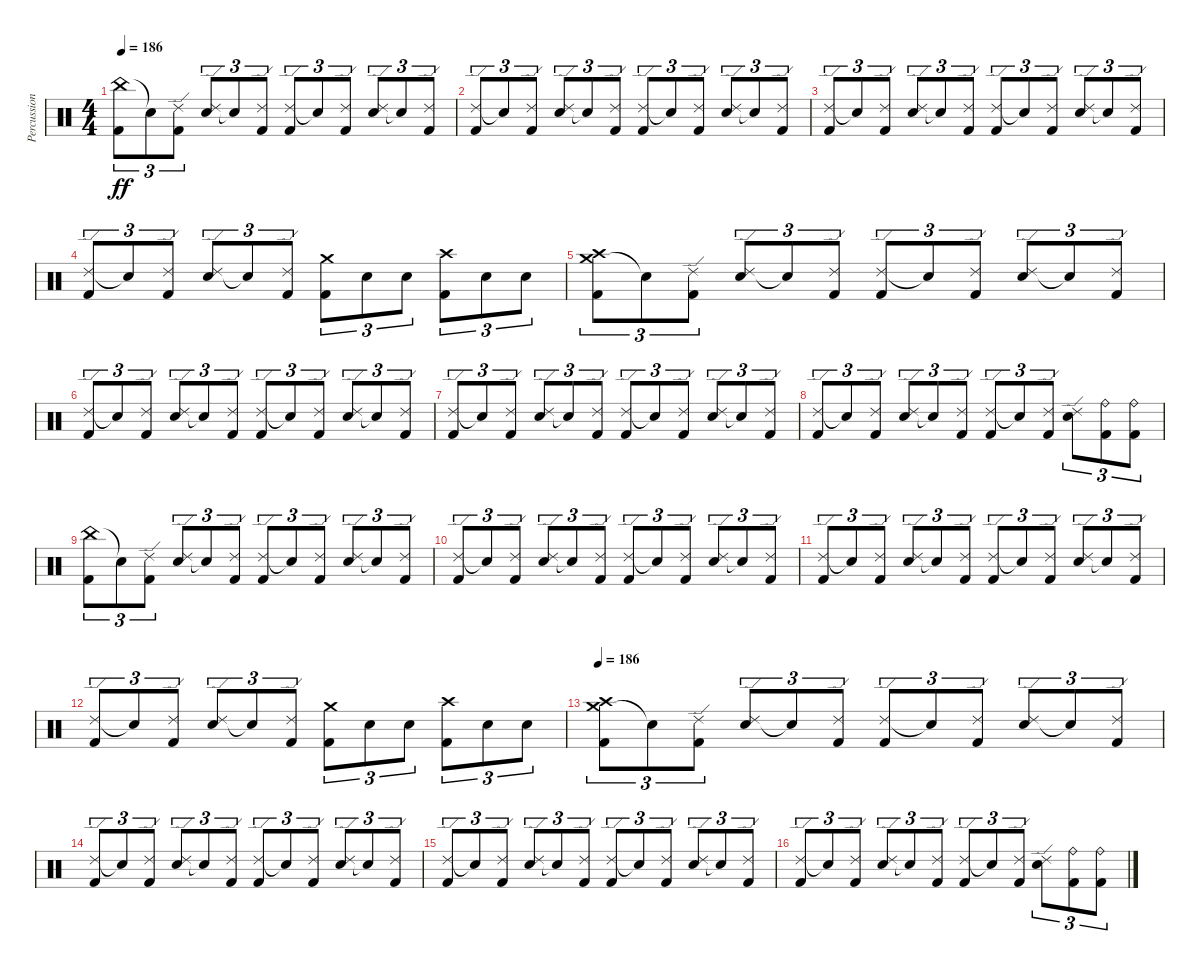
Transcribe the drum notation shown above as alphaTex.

\track ("Percussion" "Percussion") {instrument percussion}
\staff {score}
\articulation defaults
\ts (4 4)
\tempo 186
\clef neutral
\ks c
("China (hit)" "Kick (hit) 2").8{tu (3 2) dy ff} "Snare (hit)"{t}.8{tu (3 2)} ("Ride (edge) 2" "Kick (hit) 2").8{tu (3 2)} ("Ride (edge) 2" "Snare (hit) 2").8{tu (3 2)} "Snare (hit)"{t}.8{tu (3 2)} ("Ride (edge) 2" "Kick (hit) 2").8{tu (3 2)} ("Ride (edge) 2" "Kick (hit) 2").8{tu (3 2)} "Snare (hit)"{t}.8{tu (3 2)} ("Ride (edge) 2" "Kick (hit) 2").8{tu (3 2)} ("Ride (edge) 2" "Snare (hit) 2").8{tu (3 2)} "Snare (hit)"{t}.8{tu (3 2)} ("Ride (edge) 2" "Kick (hit) 2").8{tu (3 2)} |
("Ride (edge) 2" "Kick (hit) 2").8{tu (3 2)} "Snare (hit)"{t}.8{tu (3 2)} ("Ride (edge) 2" "Kick (hit) 2").8{tu (3 2)} ("Ride (edge) 2" "Snare (hit) 2").8{tu (3 2)} "Snare (hit)"{t}.8{tu (3 2)} ("Ride (edge) 2" "Kick (hit) 2").8{tu (3 2)} ("Ride (edge) 2" "Kick (hit) 2").8{tu (3 2)} "Snare (hit)"{t}.8{tu (3 2)} ("Ride (edge) 2" "Kick (hit) 2").8{tu (3 2)} ("Ride (edge) 2" "Snare (hit) 2").8{tu (3 2)} "Snare (hit)"{t}.8{tu (3 2)} ("Ride (edge) 2" "Kick (hit) 2").8{tu (3 2)} |
("Ride (edge) 2" "Kick (hit) 2").8{tu (3 2)} "Snare (hit)"{t}.8{tu (3 2)} ("Ride (edge) 2" "Kick (hit) 2").8{tu (3 2)} ("Ride (edge) 2" "Snare (hit) 2").8{tu (3 2)} "Snare (hit)"{t}.8{tu (3 2)} ("Ride (edge) 2" "Kick (hit) 2").8{tu (3 2)} ("Ride (edge) 2" "Kick (hit) 2").8{tu (3 2)} "Snare (hit)"{t}.8{tu (3 2)} ("Ride (edge) 2" "Kick (hit) 2").8{tu (3 2)} ("Ride (edge) 2" "Snare (hit) 2").8{tu (3 2)} "Snare (hit)"{t}.8{tu (3 2)} ("Ride (edge) 2" "Kick (hit) 2").8{tu (3 2)} |
("Ride (edge) 2" "Kick (hit) 2").8{tu (3 2)} "Snare (hit)"{t}.8{tu (3 2)} ("Ride (edge) 2" "Kick (hit) 2").8{tu (3 2)} ("Ride (edge) 2" "Snare (hit) 2").8{tu (3 2)} "Snare (hit)"{t}.8{tu (3 2)} ("Ride (edge) 2" "Kick (hit) 2").8{tu (3 2)} ("Crash medium (hit)" "Kick (hit) 2").8{tu (3 2)} "Snare (hit) 2".8{tu (3 2)} "Snare (hit) 2".8{tu (3 2)} ("Crash high (hit)" "Kick (hit) 2").8{tu (3 2)} "Snare (hit) 2".8{tu (3 2)} "Snare (hit) 2".8{tu (3 2)} |
("Crash medium (hit)" "Crash high (hit)" "Kick (hit) 2").8{tu (3 2)} "Snare (hit)"{t}.8{tu (3 2)} ("Ride (edge) 2" "Kick (hit) 2").8{tu (3 2)} ("Ride (edge) 2" "Snare (hit) 2").8{tu (3 2)} "Snare (hit)"{t}.8{tu (3 2)} ("Ride (edge) 2" "Kick (hit) 2").8{tu (3 2)} ("Ride (edge) 2" "Kick (hit) 2").8{tu (3 2)} "Snare (hit)"{t}.8{tu (3 2)} ("Ride (edge) 2" "Kick (hit) 2").8{tu (3 2)} ("Ride (edge) 2" "Snare (hit) 2").8{tu (3 2)} "Snare (hit)"{t}.8{tu (3 2)} ("Ride (edge) 2" "Kick (hit) 2").8{tu (3 2)} |
("Ride (edge) 2" "Kick (hit) 2").8{tu (3 2)} "Snare (hit)"{t}.8{tu (3 2)} ("Ride (edge) 2" "Kick (hit) 2").8{tu (3 2)} ("Ride (edge) 2" "Snare (hit) 2").8{tu (3 2)} "Snare (hit)"{t}.8{tu (3 2)} ("Ride (edge) 2" "Kick (hit) 2").8{tu (3 2)} ("Ride (edge) 2" "Kick (hit) 2").8{tu (3 2)} "Snare (hit)"{t}.8{tu (3 2)} ("Ride (edge) 2" "Kick (hit) 2").8{tu (3 2)} ("Ride (edge) 2" "Snare (hit) 2").8{tu (3 2)} "Snare (hit)"{t}.8{tu (3 2)} ("Ride (edge) 2" "Kick (hit) 2").8{tu (3 2)} |
("Ride (edge) 2" "Kick (hit) 2").8{tu (3 2)} "Snare (hit)"{t}.8{tu (3 2)} ("Ride (edge) 2" "Kick (hit) 2").8{tu (3 2)} ("Ride (edge) 2" "Snare (hit) 2").8{tu (3 2)} "Snare (hit)"{t}.8{tu (3 2)} ("Ride (edge) 2" "Kick (hit) 2").8{tu (3 2)} ("Ride (edge) 2" "Kick (hit) 2").8{tu (3 2)} "Snare (hit)"{t}.8{tu (3 2)} ("Ride (edge) 2" "Kick (hit) 2").8{tu (3 2)} ("Ride (edge) 2" "Snare (hit) 2").8{tu (3 2)} "Snare (hit)"{t}.8{tu (3 2)} ("Ride (edge) 2" "Kick (hit) 2").8{tu (3 2)} |
("Ride (edge) 2" "Kick (hit) 2").8{tu (3 2)} "Snare (hit)"{t}.8{tu (3 2)} ("Ride (edge) 2" "Kick (hit) 2").8{tu (3 2)} ("Ride (edge) 2" "Snare (hit) 2").8{tu (3 2)} "Snare (hit)"{t}.8{tu (3 2)} ("Ride (edge) 2" "Kick (hit) 2").8{tu (3 2)} ("Ride (edge) 2" "Kick (hit) 2").8{tu (3 2)} "Snare (hit)"{t}.8{tu (3 2)} ("Ride (edge) 2" "Kick (hit) 2").8{tu (3 2)} ("Ride (edge) 2" "Snare (hit) 2").8{tu (3 2)} ("Ride (bell)" "Kick (hit) 2").8{tu (3 2)} ("Ride (bell)" "Kick (hit) 2").8{tu (3 2)} |
("China (hit)" "Kick (hit) 2").8{tu (3 2)} "Snare (hit)"{t}.8{tu (3 2)} ("Ride (edge) 2" "Kick (hit) 2").8{tu (3 2)} ("Ride (edge) 2" "Snare (hit) 2").8{tu (3 2)} "Snare (hit)"{t}.8{tu (3 2)} ("Ride (edge) 2" "Kick (hit) 2").8{tu (3 2)} ("Ride (edge) 2" "Kick (hit) 2").8{tu (3 2)} "Snare (hit)"{t}.8{tu (3 2)} ("Ride (edge) 2" "Kick (hit) 2").8{tu (3 2)} ("Ride (edge) 2" "Snare (hit) 2").8{tu (3 2)} "Snare (hit)"{t}.8{tu (3 2)} ("Ride (edge) 2" "Kick (hit) 2").8{tu (3 2)} |
("Ride (edge) 2" "Kick (hit) 2").8{tu (3 2)} "Snare (hit)"{t}.8{tu (3 2)} ("Ride (edge) 2" "Kick (hit) 2").8{tu (3 2)} ("Ride (edge) 2" "Snare (hit) 2").8{tu (3 2)} "Snare (hit)"{t}.8{tu (3 2)} ("Ride (edge) 2" "Kick (hit) 2").8{tu (3 2)} ("Ride (edge) 2" "Kick (hit) 2").8{tu (3 2)} "Snare (hit)"{t}.8{tu (3 2)} ("Ride (edge) 2" "Kick (hit) 2").8{tu (3 2)} ("Ride (edge) 2" "Snare (hit) 2").8{tu (3 2)} "Snare (hit)"{t}.8{tu (3 2)} ("Ride (edge) 2" "Kick (hit) 2").8{tu (3 2)} |
("Ride (edge) 2" "Kick (hit) 2").8{tu (3 2)} "Snare (hit)"{t}.8{tu (3 2)} ("Ride (edge) 2" "Kick (hit) 2").8{tu (3 2)} ("Ride (edge) 2" "Snare (hit) 2").8{tu (3 2)} "Snare (hit)"{t}.8{tu (3 2)} ("Ride (edge) 2" "Kick (hit) 2").8{tu (3 2)} ("Ride (edge) 2" "Kick (hit) 2").8{tu (3 2)} "Snare (hit)"{t}.8{tu (3 2)} ("Ride (edge) 2" "Kick (hit) 2").8{tu (3 2)} ("Ride (edge) 2" "Snare (hit) 2").8{tu (3 2)} "Snare (hit)"{t}.8{tu (3 2)} ("Ride (edge) 2" "Kick (hit) 2").8{tu (3 2)} |
("Ride (edge) 2" "Kick (hit) 2").8{tu (3 2)} "Snare (hit)"{t}.8{tu (3 2)} ("Ride (edge) 2" "Kick (hit) 2").8{tu (3 2)} ("Ride (edge) 2" "Snare (hit) 2").8{tu (3 2)} "Snare (hit)"{t}.8{tu (3 2)} ("Ride (edge) 2" "Kick (hit) 2").8{tu (3 2)} ("Crash medium (hit)" "Kick (hit) 2").8{tu (3 2)} "Snare (hit) 2".8{tu (3 2)} "Snare (hit) 2".8{tu (3 2)} ("Crash high (hit)" "Kick (hit) 2").8{tu (3 2)} "Snare (hit) 2".8{tu (3 2)} "Snare (hit) 2".8{tu (3 2)} |
\tempo 186
("Crash medium (hit)" "Crash high (hit)" "Kick (hit) 2").8{tu (3 2)} "Snare (hit)"{t}.8{tu (3 2)} ("Ride (edge) 2" "Kick (hit) 2").8{tu (3 2)} ("Ride (edge) 2" "Snare (hit) 2").8{tu (3 2)} "Snare (hit)"{t}.8{tu (3 2)} ("Ride (edge) 2" "Kick (hit) 2").8{tu (3 2)} ("Ride (edge) 2" "Kick (hit) 2").8{tu (3 2)} "Snare (hit)"{t}.8{tu (3 2)} ("Ride (edge) 2" "Kick (hit) 2").8{tu (3 2)} ("Ride (edge) 2" "Snare (hit) 2").8{tu (3 2)} "Snare (hit)"{t}.8{tu (3 2)} ("Ride (edge) 2" "Kick (hit) 2").8{tu (3 2)} |
("Ride (edge) 2" "Kick (hit) 2").8{tu (3 2)} "Snare (hit)"{t}.8{tu (3 2)} ("Ride (edge) 2" "Kick (hit) 2").8{tu (3 2)} ("Ride (edge) 2" "Snare (hit) 2").8{tu (3 2)} "Snare (hit)"{t}.8{tu (3 2)} ("Ride (edge) 2" "Kick (hit) 2").8{tu (3 2)} ("Ride (edge) 2" "Kick (hit) 2").8{tu (3 2)} "Snare (hit)"{t}.8{tu (3 2)} ("Ride (edge) 2" "Kick (hit) 2").8{tu (3 2)} ("Ride (edge) 2" "Snare (hit) 2").8{tu (3 2)} "Snare (hit)"{t}.8{tu (3 2)} ("Ride (edge) 2" "Kick (hit) 2").8{tu (3 2)} |
("Ride (edge) 2" "Kick (hit) 2").8{tu (3 2)} "Snare (hit)"{t}.8{tu (3 2)} ("Ride (edge) 2" "Kick (hit) 2").8{tu (3 2)} ("Ride (edge) 2" "Snare (hit) 2").8{tu (3 2)} "Snare (hit)"{t}.8{tu (3 2)} ("Ride (edge) 2" "Kick (hit) 2").8{tu (3 2)} ("Ride (edge) 2" "Kick (hit) 2").8{tu (3 2)} "Snare (hit)"{t}.8{tu (3 2)} ("Ride (edge) 2" "Kick (hit) 2").8{tu (3 2)} ("Ride (edge) 2" "Snare (hit) 2").8{tu (3 2)} "Snare (hit)"{t}.8{tu (3 2)} ("Ride (edge) 2" "Kick (hit) 2").8{tu (3 2)} |
("Ride (edge) 2" "Kick (hit) 2").8{tu (3 2)} "Snare (hit)"{t}.8{tu (3 2)} ("Ride (edge) 2" "Kick (hit) 2").8{tu (3 2)} ("Ride (edge) 2" "Snare (hit) 2").8{tu (3 2)} "Snare (hit)"{t}.8{tu (3 2)} ("Ride (edge) 2" "Kick (hit) 2").8{tu (3 2)} ("Ride (edge) 2" "Kick (hit) 2").8{tu (3 2)} "Snare (hit)"{t}.8{tu (3 2)} ("Ride (edge) 2" "Kick (hit) 2").8{tu (3 2)} ("Ride (edge) 2" "Snare (hit) 2").8{tu (3 2)} ("Ride (bell)" "Kick (hit) 2").8{tu (3 2)} ("Ride (bell)" "Kick (hit) 2").8{tu (3 2)}
